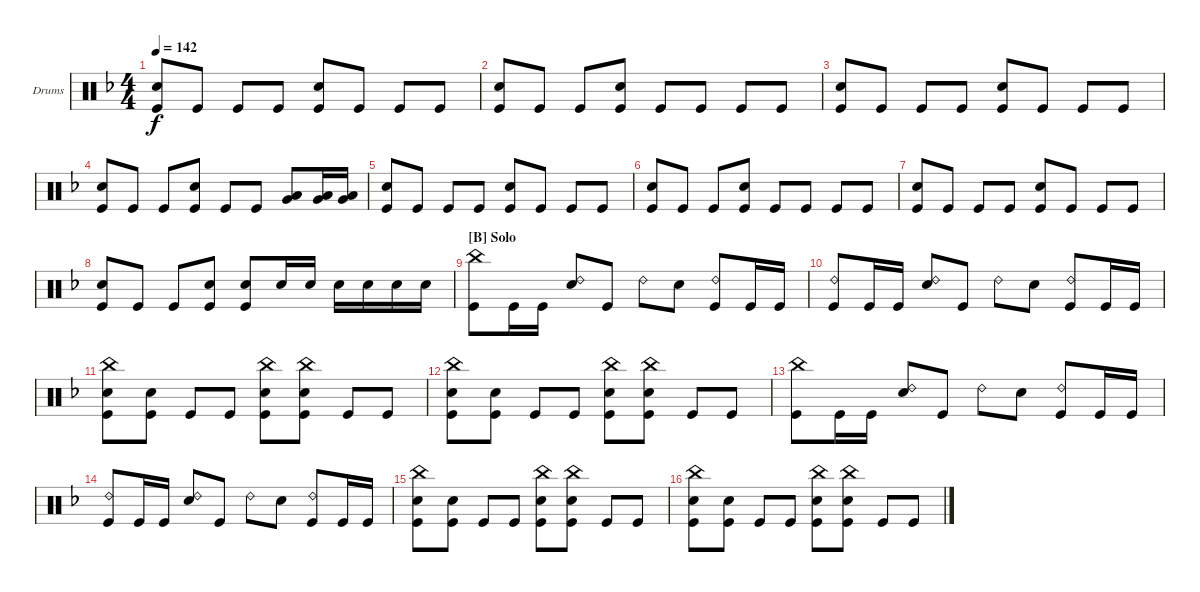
\defaultSystemsLayout 4
\bracketExtendMode groupsimilarinstruments
\firstSystemTrackNameOrientation horizontal
\otherSystemsTrackNameOrientation horizontal
\track ("Mark" "Drums") {instrument percussion}
\staff {score}
\articulation defaults
\ts (4 4)
\tempo 142
\clef neutral
\scale
0.333333
\ks f
("Snare (hit) 2" "Kick (hit)").8{dy f} "Kick (hit)".8 "Kick (hit)".8 "Kick (hit)".8 ("Snare (hit) 2" "Kick (hit)").8 "Kick (hit)".8 "Kick (hit)".8 "Kick (hit)".8 |
\scale
0.333333 ("Snare (hit) 2" "Kick (hit)").8 "Kick (hit)".8 "Kick (hit)".8 ("Snare (hit) 2" "Kick (hit)").8 "Kick (hit)".8 "Kick (hit)".8 "Kick (hit)".8 "Kick (hit)".8 |
\scale
0.333333 ("Snare (hit) 2" "Kick (hit)").8 "Kick (hit)".8 "Kick (hit)".8 "Kick (hit)".8 ("Snare (hit) 2" "Kick (hit)").8 "Kick (hit)".8 "Kick (hit)".8 "Kick (hit)".8 |
\scale
0.333333 ("Snare (hit) 2" "Kick (hit)").8 "Kick (hit)".8 "Kick (hit)".8 ("Snare (hit) 2" "Kick (hit)").8 "Kick (hit)".8 "Kick (hit)".8 ("Very Low Tom (hit)" "Low Tom (hit)").8 ("Very Low Tom (hit)" "Low Tom (hit)").16 ("Very Low Tom (hit)" "Low Tom (hit)").16 |
\scale
0.333333 ("Snare (hit) 2" "Kick (hit)").8 "Kick (hit)".8 "Kick (hit)".8 "Kick (hit)".8 ("Snare (hit) 2" "Kick (hit)").8 "Kick (hit)".8 "Kick (hit)".8 "Kick (hit)".8 |
\scale
0.333333 ("Snare (hit) 2" "Kick (hit)").8 "Kick (hit)".8 "Kick (hit)".8 ("Snare (hit) 2" "Kick (hit)").8 "Kick (hit)".8 "Kick (hit)".8 "Kick (hit)".8 "Kick (hit)".8 |
\scale
0.333333 ("Snare (hit) 2" "Kick (hit)").8 "Kick (hit)".8 "Kick (hit)".8 "Kick (hit)".8 ("Snare (hit) 2" "Kick (hit)").8 "Kick (hit)".8 "Kick (hit)".8 "Kick (hit)".8 |
\scale
0.333333 ("Snare (hit) 2" "Kick (hit)").8 "Kick (hit)".8 "Kick (hit)".8 ("Snare (hit) 2" "Kick (hit)").8 ("Snare (hit) 2" "Kick (hit)").8 "Snare (hit) 2".16 "Snare (hit) 2".16 "Snare (hit) 2".16 "Snare (hit) 2".16 "Snare (hit) 2".16 "Snare (hit) 2".16 |
\section ("B" "Solo")
\scale
0.333333 ("China (hit)" "Kick (hit)").8 "Kick (hit)".16 "Kick (hit)".16 ("Ride (bell) 2" "Snare (hit) 2").8 "Kick (hit)".8 "Ride (bell) 2".8 "Snare (hit) 2".8 ("Ride (bell) 2" "Kick (hit)").8 "Kick (hit)".16 "Kick (hit)".16 |
\scale
0.333333 ("Ride (bell) 2" "Kick (hit)").8 "Kick (hit)".16 "Kick (hit)".16 ("Ride (bell) 2" "Snare (hit) 2").8 "Kick (hit)".8 "Ride (bell) 2".8 "Snare (hit) 2".8 ("Ride (bell) 2" "Kick (hit)").8 "Kick (hit)".16 "Kick (hit)".16 |
\scale
0.333333 ("China (hit)" "Snare (hit) 2" "Kick (hit)").8 ("Snare (hit) 2" "Kick (hit)").8 "Kick (hit)".8 "Kick (hit)".8 ("China (hit)" "Snare (hit) 2" "Kick (hit)").8 ("China (hit)" "Snare (hit) 2" "Kick (hit)").8 "Kick (hit)".8 "Kick (hit)".8 |
\scale
0.333333 ("China (hit)" "Snare (hit) 2" "Kick (hit)").8 ("Snare (hit) 2" "Kick (hit)").8 "Kick (hit)".8 "Kick (hit)".8 ("China (hit)" "Snare (hit) 2" "Kick (hit)").8 ("China (hit)" "Snare (hit) 2" "Kick (hit)").8 "Kick (hit)".8 "Kick (hit)".8 |
\scale
0.333333 ("China (hit)" "Kick (hit)").8 "Kick (hit)".16 "Kick (hit)".16 ("Ride (bell) 2" "Snare (hit) 2").8 "Kick (hit)".8 "Ride (bell) 2".8 "Snare (hit) 2".8 ("Ride (bell) 2" "Kick (hit)").8 "Kick (hit)".16 "Kick (hit)".16 |
\scale
0.333333 ("Ride (bell) 2" "Kick (hit)").8 "Kick (hit)".16 "Kick (hit)".16 ("Ride (bell) 2" "Snare (hit) 2").8 "Kick (hit)".8 "Ride (bell) 2".8 "Snare (hit) 2".8 ("Ride (bell) 2" "Kick (hit)").8 "Kick (hit)".16 "Kick (hit)".16 |
\scale
0.333333 ("China (hit)" "Snare (hit) 2" "Kick (hit)").8 ("Snare (hit) 2" "Kick (hit)").8 "Kick (hit)".8 "Kick (hit)".8 ("China (hit)" "Snare (hit) 2" "Kick (hit)").8 ("China (hit)" "Snare (hit) 2" "Kick (hit)").8 "Kick (hit)".8 "Kick (hit)".8 |
\scale
0.333333 ("China (hit)" "Snare (hit) 2" "Kick (hit)").8 ("Snare (hit) 2" "Kick (hit)").8 "Kick (hit)".8 "Kick (hit)".8 ("China (hit)" "Snare (hit) 2" "Kick (hit)").8 ("China (hit)" "Snare (hit) 2" "Kick (hit)").8 "Kick (hit)".8 "Kick (hit)".8
